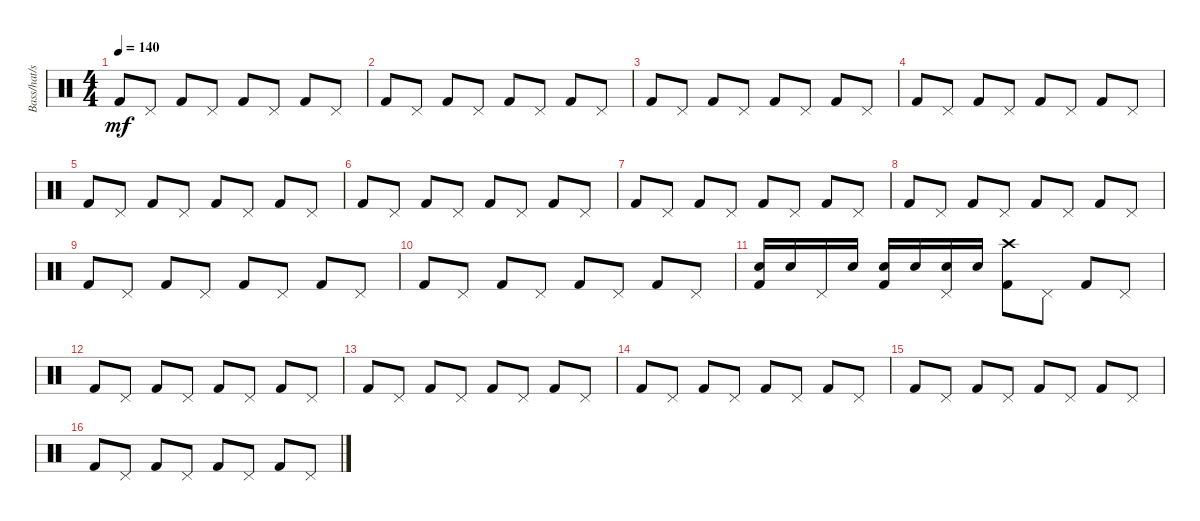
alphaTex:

\track ("Bass/hat/snare/cymbal" "Bass/hat/s") {instrument percussion}
\staff {score}
\articulation defaults
\ts (4 4)
\tempo 140
\clef neutral
\ks c "Kick (hit) 2".8{dy mf} "Pedal Hi-Hat (hit)".8 "Kick (hit) 2".8 "Pedal Hi-Hat (hit)".8 "Kick (hit) 2".8 "Pedal Hi-Hat (hit)".8 "Kick (hit) 2".8 "Pedal Hi-Hat (hit)".8
|
"Kick (hit) 2".8 "Pedal Hi-Hat (hit)".8 "Kick (hit) 2".8 "Pedal Hi-Hat (hit)".8 "Kick (hit) 2".8 "Pedal Hi-Hat (hit)".8 "Kick (hit) 2".8 "Pedal Hi-Hat (hit)".8 |
"Kick (hit) 2".8 "Pedal Hi-Hat (hit)".8 "Kick (hit) 2".8 "Pedal Hi-Hat (hit)".8 "Kick (hit) 2".8 "Pedal Hi-Hat (hit)".8 "Kick (hit) 2".8 "Pedal Hi-Hat (hit)".8 |
"Kick (hit) 2".8 "Pedal Hi-Hat (hit)".8 "Kick (hit) 2".8 "Pedal Hi-Hat (hit)".8 "Kick (hit) 2".8 "Pedal Hi-Hat (hit)".8 "Kick (hit) 2".8 "Pedal Hi-Hat (hit)".8 |
"Kick (hit) 2".8 "Pedal Hi-Hat (hit)".8 "Kick (hit) 2".8 "Pedal Hi-Hat (hit)".8 "Kick (hit) 2".8 "Pedal Hi-Hat (hit)".8 "Kick (hit) 2".8 "Pedal Hi-Hat (hit)".8 |
"Kick (hit) 2".8 "Pedal Hi-Hat (hit)".8 "Kick (hit) 2".8 "Pedal Hi-Hat (hit)".8 "Kick (hit) 2".8 "Pedal Hi-Hat (hit)".8 "Kick (hit) 2".8 "Pedal Hi-Hat (hit)".8 |
"Kick (hit) 2".8 "Pedal Hi-Hat (hit)".8 "Kick (hit) 2".8 "Pedal Hi-Hat (hit)".8 "Kick (hit) 2".8 "Pedal Hi-Hat (hit)".8 "Kick (hit) 2".8 "Pedal Hi-Hat (hit)".8 |
"Kick (hit) 2".8 "Pedal Hi-Hat (hit)".8 "Kick (hit) 2".8 "Pedal Hi-Hat (hit)".8 "Kick (hit) 2".8 "Pedal Hi-Hat (hit)".8 "Kick (hit) 2".8 "Pedal Hi-Hat (hit)".8 |
"Kick (hit) 2".8 "Pedal Hi-Hat (hit)".8 "Kick (hit) 2".8 "Pedal Hi-Hat (hit)".8 "Kick (hit) 2".8 "Pedal Hi-Hat (hit)".8 "Kick (hit) 2".8 "Pedal Hi-Hat (hit)".8 |
"Kick (hit) 2".8 "Pedal Hi-Hat (hit)".8 "Kick (hit) 2".8 "Pedal Hi-Hat (hit)".8 "Kick (hit) 2".8 "Pedal Hi-Hat (hit)".8 "Kick (hit) 2".8 "Pedal Hi-Hat (hit)".8 |
("Kick (hit) 2" "Snare (hit) 2").16 "Snare (hit) 2".16 "Pedal Hi-Hat (hit)".16 "Snare (hit) 2".16 ("Kick (hit) 2" "Snare (hit) 2").16 "Snare (hit) 2".16 ("Snare (hit) 2" "Pedal Hi-Hat (hit)").16 "Snare (hit) 2".16 ("Kick (hit) 2" "Crash high (hit)").8 "Pedal Hi-Hat (hit)".8 "Kick (hit) 2".8 "Pedal Hi-Hat (hit)".8 |
"Kick (hit) 2".8 "Pedal Hi-Hat (hit)".8 "Kick (hit) 2".8 "Pedal Hi-Hat (hit)".8 "Kick (hit) 2".8 "Pedal Hi-Hat (hit)".8 "Kick (hit) 2".8 "Pedal Hi-Hat (hit)".8 |
"Kick (hit) 2".8 "Pedal Hi-Hat (hit)".8 "Kick (hit) 2".8 "Pedal Hi-Hat (hit)".8 "Kick (hit) 2".8 "Pedal Hi-Hat (hit)".8 "Kick (hit) 2".8 "Pedal Hi-Hat (hit)".8 |
"Kick (hit) 2".8 "Pedal Hi-Hat (hit)".8 "Kick (hit) 2".8 "Pedal Hi-Hat (hit)".8 "Kick (hit) 2".8 "Pedal Hi-Hat (hit)".8 "Kick (hit) 2".8 "Pedal Hi-Hat (hit)".8 |
"Kick (hit) 2".8 "Pedal Hi-Hat (hit)".8 "Kick (hit) 2".8 "Pedal Hi-Hat (hit)".8 "Kick (hit) 2".8 "Pedal Hi-Hat (hit)".8 "Kick (hit) 2".8 "Pedal Hi-Hat (hit)".8 |
"Kick (hit) 2".8 "Pedal Hi-Hat (hit)".8 "Kick (hit) 2".8 "Pedal Hi-Hat (hit)".8 "Kick (hit) 2".8 "Pedal Hi-Hat (hit)".8 "Kick (hit) 2".8 "Pedal Hi-Hat (hit)".8
